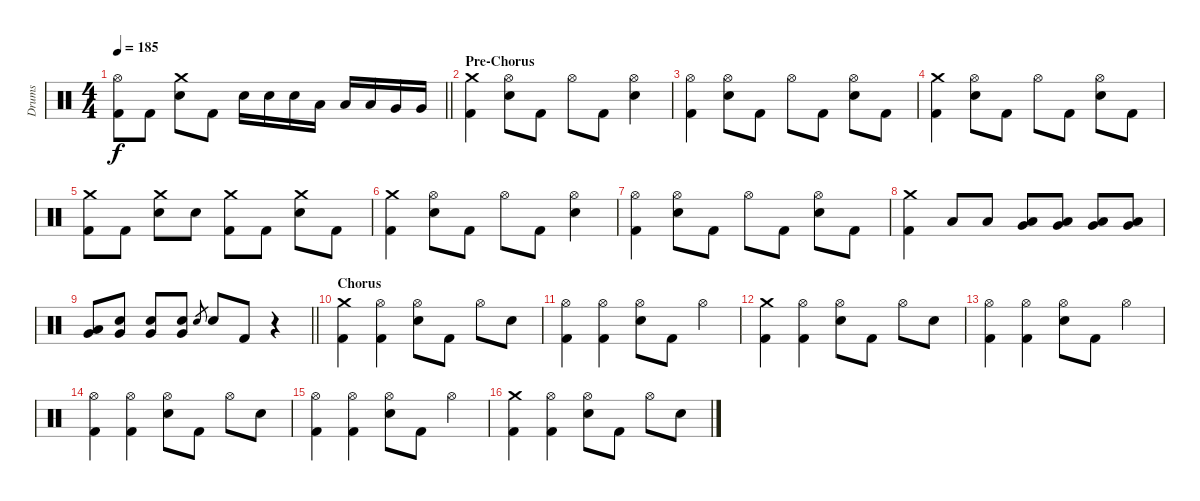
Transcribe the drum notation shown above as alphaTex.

\track ("Drums" "Drums") {instrument percussion}
\staff {score}
\articulation defaults
\ts (4 4)
\tempo 185
\clef neutral
\barLineRight lightlight
\ks c
("Hi-Hat (open)" "Kick (hit) 2").8{dy f} "Kick (hit) 2".8 ("Crash medium (hit)" "Electric Snare (hit)").8 "Kick (hit) 2".8 "Electric Snare (hit)".16 "Electric Snare (hit)".16 "Electric Snare (hit)".16 "Low Tom (hit)".16 "Low Tom (hit)".16 "Low Tom (hit)".16 "Very Low Tom (hit)".16 "Very Low Tom (hit)".16 |
\section ("" "Pre-Chorus")
("Crash medium (hit)" "Kick (hit) 2").4 ("Hi-Hat (open)" "Electric Snare (hit)").8 "Kick (hit) 2".8 "Hi-Hat (open)".8 "Kick (hit) 2".8 ("Hi-Hat (open)" "Electric Snare (hit)").4 |
("Hi-Hat (open)" "Kick (hit) 2").4 ("Hi-Hat (open)" "Electric Snare (hit)").8 "Kick (hit) 2".8 "Hi-Hat (open)".8 "Kick (hit) 2".8 ("Hi-Hat (open)" "Electric Snare (hit)").8 "Kick (hit) 2".8 |
("Crash medium (hit)" "Kick (hit) 2").4 ("Hi-Hat (open)" "Electric Snare (hit)").8 "Kick (hit) 2".8 "Hi-Hat (open)".8 "Kick (hit) 2".8 ("Hi-Hat (open)" "Electric Snare (hit)").8 "Kick (hit) 2".8 |
("Crash medium (hit)" "Kick (hit) 2").8 "Kick (hit) 2".8 ("Crash medium (hit)" "Electric Snare (hit)").8 "Electric Snare (hit)".8 ("Crash medium (hit)" "Kick (hit) 2").8 "Kick (hit) 2".8 ("Crash medium (hit)" "Electric Snare (hit)").8 "Kick (hit) 2".8 |
("Crash medium (hit)" "Kick (hit) 2").4 ("Hi-Hat (open)" "Electric Snare (hit)").8 "Kick (hit) 2".8 "Hi-Hat (open)".8 "Kick (hit) 2".8 ("Hi-Hat (open)" "Electric Snare (hit)").4 |
("Hi-Hat (open)" "Kick (hit) 2").4 ("Hi-Hat (open)" "Electric Snare (hit)").8 "Kick (hit) 2".8 "Hi-Hat (open)".8 "Kick (hit) 2".8 ("Hi-Hat (open)" "Electric Snare (hit)").8 "Kick (hit) 2".8 |
("Crash medium (hit)" "Kick (hit) 2").4 "Low Floor Tom (hit)".8 "Low Floor Tom (hit)".8 ("Very Low Tom (hit)" "Low Floor Tom (hit)").8 ("Very Low Tom (hit)" "Low Floor Tom (hit)").8 ("Low Tom (hit)" "Very Low Tom (hit)").8 ("Low Tom (hit)" "Very Low Tom (hit)").8 |
\barLineRight lightlight
("Low Tom (hit)" "Very Low Tom (hit)").8 ("Electric Snare (hit)" "Very Low Tom (hit)").8 ("Electric Snare (hit)" "Very Low Tom (hit)").8 ("Electric Snare (hit)" "Very Low Tom (hit)").8 "Electric Snare (hit)".8{gr} "Electric Snare (hit)".8 "Kick (hit) 2".8 r.4 |
\section ("" "Chorus")
("Crash medium (hit)" "Kick (hit) 2").4 ("Hi-Hat (open)" "Kick (hit) 2").4 ("Hi-Hat (open)" "Electric Snare (hit)").8 "Kick (hit) 2".8 "Hi-Hat (open)".8 "Electric Snare (hit)".8 |
("Hi-Hat (open)" "Kick (hit) 2").4 ("Hi-Hat (open)" "Kick (hit) 2").4 ("Hi-Hat (open)" "Electric Snare (hit)").8 "Kick (hit) 2".8 "Hi-Hat (open)".4 |
("Crash medium (hit)" "Kick (hit) 2").4 ("Hi-Hat (open)" "Kick (hit) 2").4 ("Hi-Hat (open)" "Electric Snare (hit)").8 "Kick (hit) 2".8 "Hi-Hat (open)".8 "Electric Snare (hit)".8 |
("Hi-Hat (open)" "Kick (hit) 2").4 ("Hi-Hat (open)" "Kick (hit) 2").4 ("Hi-Hat (open)" "Electric Snare (hit)").8 "Kick (hit) 2".8 "Hi-Hat (open)".4 |
("Hi-Hat (open)" "Kick (hit) 2").4 ("Hi-Hat (open)" "Kick (hit) 2").4 ("Hi-Hat (open)" "Electric Snare (hit)").8 "Kick (hit) 2".8 "Hi-Hat (open)".8 "Electric Snare (hit)".8 |
("Hi-Hat (open)" "Kick (hit) 2").4 ("Hi-Hat (open)" "Kick (hit) 2").4 ("Hi-Hat (open)" "Electric Snare (hit)").8 "Kick (hit) 2".8 "Hi-Hat (open)".4 |
("Crash medium (hit)" "Kick (hit) 2").4 ("Hi-Hat (open)" "Kick (hit) 2").4 ("Hi-Hat (open)" "Electric Snare (hit)").8 "Kick (hit) 2".8 "Hi-Hat (open)".8 "Electric Snare (hit)".8
